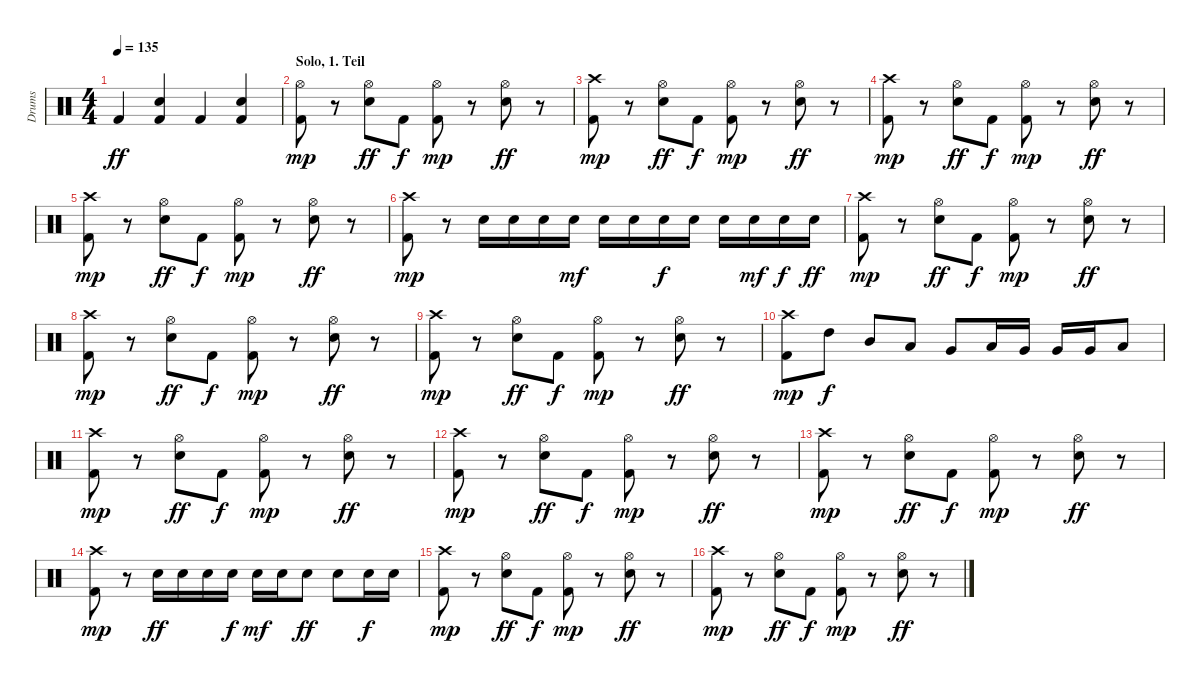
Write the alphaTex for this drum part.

\track ("Drums" "Drums") {instrument percussion}
\staff {score}
\articulation defaults
\ts (4 4)
\tempo 135
\clef neutral
\ks c "Kick (hit) 2".4{dy ff}
("Kick (hit) 2" "Electric Snare (hit)").4 "Kick (hit) 2".4 ("Kick (hit) 2" "Electric Snare (hit)").4 |
\section ("" "Solo, 1. Teil")
("Hi-Hat (open)" "Kick (hit) 2").8{dy mp} r.8 ("Hi-Hat (open)" "Electric Snare (hit)").8{dy ff} "Kick (hit) 2".8{dy f} ("Hi-Hat (open)" "Kick (hit) 2").8{dy mp} r.8 ("Hi-Hat (open)" "Electric Snare (hit)").8{dy ff} r.8 |
("Crash high (hit)" "Kick (hit) 2").8{dy mp} r.8 ("Hi-Hat (open)" "Electric Snare (hit)").8{dy ff} "Kick (hit) 2".8{dy f} ("Hi-Hat (open)" "Kick (hit) 2").8{dy mp} r.8 ("Hi-Hat (open)" "Electric Snare (hit)").8{dy ff} r.8 |
("Crash high (hit)" "Kick (hit) 2").8{dy mp} r.8 ("Hi-Hat (open)" "Electric Snare (hit)").8{dy ff} "Kick (hit) 2".8{dy f} ("Hi-Hat (open)" "Kick (hit) 2").8{dy mp} r.8 ("Hi-Hat (open)" "Electric Snare (hit)").8{dy ff} r.8 |
("Crash high (hit)" "Kick (hit) 2").8{dy mp} r.8 ("Hi-Hat (open)" "Electric Snare (hit)").8{dy ff} "Kick (hit) 2".8{dy f} ("Hi-Hat (open)" "Kick (hit) 2").8{dy mp} r.8 ("Hi-Hat (open)" "Electric Snare (hit)").8{dy ff} r.8 |
("Crash high (hit)" "Kick (hit) 2").8{dy mp} r.8 "Electric Snare (hit)".16 "Electric Snare (hit)".16 "Electric Snare (hit)".16 "Electric Snare (hit)".16{dy mf} "Electric Snare (hit)".16 "Electric Snare (hit)".16 "Electric Snare (hit)".16{dy f} "Electric Snare (hit)".16 "Electric Snare (hit)".16 "Electric Snare (hit)".16{dy mf} "Electric Snare (hit)".16{dy f} "Electric Snare (hit)".16{dy ff} |
("Crash high (hit)" "Kick (hit) 2").8{dy mp} r.8 ("Hi-Hat (open)" "Electric Snare (hit)").8{dy ff} "Kick (hit) 2".8{dy f} ("Hi-Hat (open)" "Kick (hit) 2").8{dy mp} r.8 ("Hi-Hat (open)" "Electric Snare (hit)").8{dy ff} r.8 |
("Crash high (hit)" "Kick (hit) 2").8{dy mp} r.8 ("Hi-Hat (open)" "Electric Snare (hit)").8{dy ff} "Kick (hit) 2".8{dy f} ("Hi-Hat (open)" "Kick (hit) 2").8{dy mp} r.8 ("Hi-Hat (open)" "Electric Snare (hit)").8{dy ff} r.8 |
("Crash high (hit)" "Kick (hit) 2").8{dy mp} r.8 ("Hi-Hat (open)" "Electric Snare (hit)").8{dy ff} "Kick (hit) 2".8{dy f} ("Hi-Hat (open)" "Kick (hit) 2").8{dy mp} r.8 ("Hi-Hat (open)" "Electric Snare (hit)").8{dy ff} r.8 |
("Crash high (hit)" "Kick (hit) 2").8{dy mp} "High Tom (hit)".8{dy f volume 16} "Mid Tom (hit)".8 "Low Tom (hit)".8 "Very Low Tom (hit)".8 "Low Tom (hit)".16 "Very Low Tom (hit)".16 "Very Low Tom (hit)".16 "Very Low Tom (hit)".16 "Low Floor Tom (hit)".8 |
("Crash high (hit)" "Kick (hit) 2").8{dy mp volume 15} r.8 ("Hi-Hat (open)" "Electric Snare (hit)").8{dy ff} "Kick (hit) 2".8{dy f} ("Hi-Hat (open)" "Kick (hit) 2").8{dy mp} r.8 ("Hi-Hat (open)" "Electric Snare (hit)").8{dy ff} r.8 |
("Crash high (hit)" "Kick (hit) 2").8{dy mp} r.8 ("Hi-Hat (open)" "Electric Snare (hit)").8{dy ff} "Kick (hit) 2".8{dy f} ("Hi-Hat (open)" "Kick (hit) 2").8{dy mp} r.8 ("Hi-Hat (open)" "Electric Snare (hit)").8{dy ff} r.8 |
("Crash high (hit)" "Kick (hit) 2").8{dy mp} r.8 ("Hi-Hat (open)" "Electric Snare (hit)").8{dy ff} "Kick (hit) 2".8{dy f} ("Hi-Hat (open)" "Kick (hit) 2").8{dy mp} r.8 ("Hi-Hat (open)" "Electric Snare (hit)").8{dy ff} r.8 |
("Crash high (hit)" "Kick (hit) 2").8{dy mp} r.8 "Electric Snare (hit)".16{dy ff volume 16} "Electric Snare (hit)".16 "Electric Snare (hit)".16 "Electric Snare (hit)".16{dy f} "Electric Snare (hit)".16{dy mf} "Electric Snare (hit)".16 "Electric Snare (hit)".8{dy ff} "Electric Snare (hit)".8 "Electric Snare (hit)".16{dy f} "Electric Snare (hit)".16 |
("Crash high (hit)" "Kick (hit) 2").8{dy mp volume 15} r.8 ("Hi-Hat (open)" "Electric Snare (hit)").8{dy ff} "Kick (hit) 2".8{dy f} ("Hi-Hat (open)" "Kick (hit) 2").8{dy mp} r.8 ("Hi-Hat (open)" "Electric Snare (hit)").8{dy ff} r.8 |
("Crash high (hit)" "Kick (hit) 2").8{dy mp} r.8 ("Hi-Hat (open)" "Electric Snare (hit)").8{dy ff} "Kick (hit) 2".8{dy f} ("Hi-Hat (open)" "Kick (hit) 2").8{dy mp} r.8 ("Hi-Hat (open)" "Electric Snare (hit)").8{dy ff} r.8
